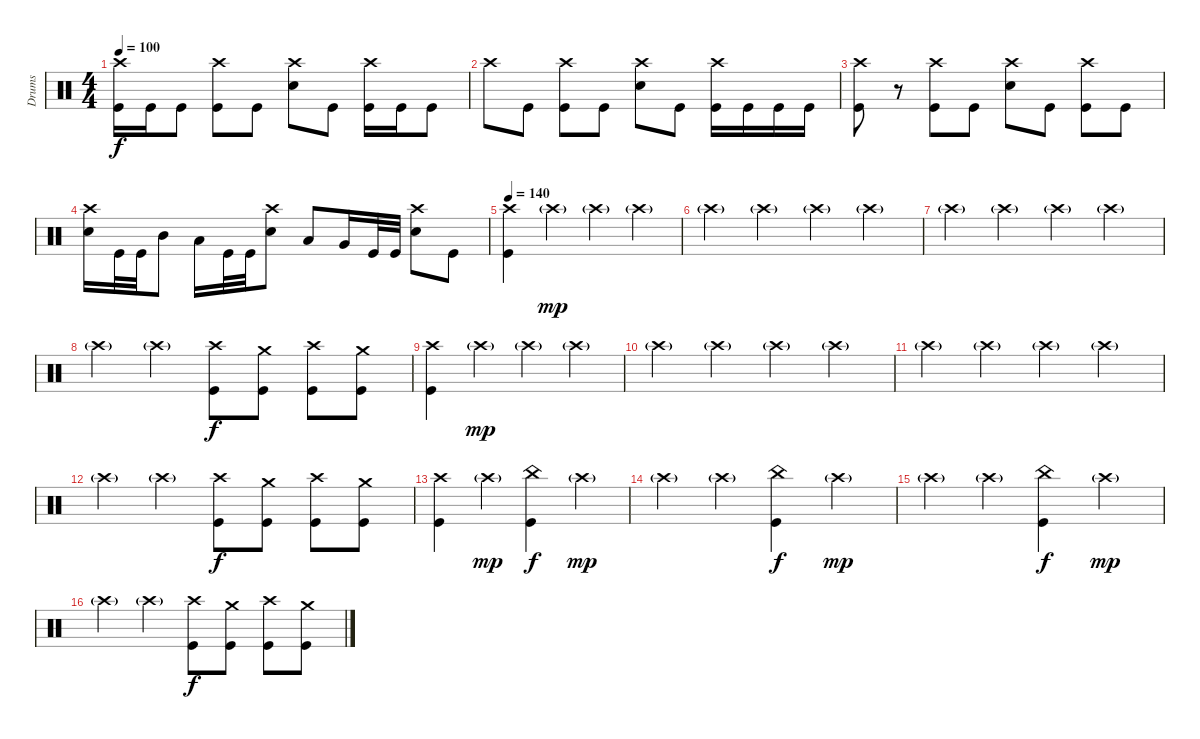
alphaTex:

\track ("Drums" "Drums") {instrument percussion}
\staff {score}
\articulation defaults
\ts (4 4)
\tempo 100
\clef neutral
\ks c
("Crash high (hit)" "Kick (hit)").16{dy f} "Kick (hit)".16 "Kick (hit)".8 ("Crash high (hit)" "Kick (hit)").8 "Kick (hit)".8 ("Crash high (hit)" "Electric Snare (hit)").8 "Kick (hit)".8 ("Crash high (hit)" "Kick (hit)").16 "Kick (hit)".16 "Kick (hit)".8 |
"Crash high (hit)".8 "Kick (hit)".8 ("Crash high (hit)" "Kick (hit)").8 "Kick (hit)".8 ("Crash high (hit)" "Electric Snare (hit)").8 "Kick (hit)".8 ("Crash high (hit)" "Kick (hit)").16 "Kick (hit)".16 "Kick (hit)".16 "Kick (hit)".16 |
("Crash high (hit)" "Kick (hit)").8 r.8 ("Crash high (hit)" "Kick (hit)").8 "Kick (hit)".8 ("Crash high (hit)" "Electric Snare (hit)").8 "Kick (hit)".8 ("Crash high (hit)" "Kick (hit)").8 "Kick (hit)".8 |
("Crash high (hit)" "Electric Snare (hit)").16 "Kick (hit)".32 "Kick (hit)".32 "Mid Tom (hit)".8 "Low Tom (hit)".16 "Kick (hit)".32 "Kick (hit)".32 ("Crash high (hit)" "Electric Snare (hit)").8 "Low Tom (hit)".8 "Very Low Tom (hit)".16 "Kick (hit)".32 "Kick (hit)".32 ("Crash high (hit)" "Electric Snare (hit)").8 "Kick (hit)".8 |
\tempo 140
("Crash high (hit)" "Kick (hit)").4 "Crash high (hit)"{g}.4{dy mp} "Crash high (hit)"{g}.4 "Crash high (hit)"{g}.4 |
"Crash high (hit)"{g}.4 "Crash high (hit)"{g}.4 "Crash high (hit)"{g}.4 "Crash high (hit)"{g}.4 |
"Crash high (hit)"{g}.4 "Crash high (hit)"{g}.4 "Crash high (hit)"{g}.4 "Crash high (hit)"{g}.4 |
"Crash high (hit)"{g}.4 "Crash high (hit)"{g}.4 ("Crash high (hit)" "Kick (hit)").8{dy f} ("Crash medium (hit)" "Kick (hit)").8 ("Crash high (hit)" "Kick (hit)").8 ("Crash medium (hit)" "Kick (hit)").8 |
("Crash high (hit)" "Kick (hit)").4 "Crash high (hit)"{g}.4{dy mp} "Crash high (hit)"{g}.4 "Crash high (hit)"{g}.4 |
"Crash high (hit)"{g}.4 "Crash high (hit)"{g}.4 "Crash high (hit)"{g}.4 "Crash high (hit)"{g}.4 |
"Crash high (hit)"{g}.4 "Crash high (hit)"{g}.4 "Crash high (hit)"{g}.4 "Crash high (hit)"{g}.4 |
"Crash high (hit)"{g}.4 "Crash high (hit)"{g}.4 ("Crash high (hit)" "Kick (hit)").8{dy f} ("Crash medium (hit)" "Kick (hit)").8 ("Crash high (hit)" "Kick (hit)").8 ("Crash medium (hit)" "Kick (hit)").8 |
("Crash high (hit)" "Kick (hit)").4 "Crash high (hit)"{g}.4{dy mp} ("China (hit)" "Kick (hit)").4{dy f} "Crash high (hit)"{g}.4{dy mp} |
"Crash high (hit)"{g}.4 "Crash high (hit)"{g}.4 ("China (hit)" "Kick (hit)").4{dy f} "Crash high (hit)"{g}.4{dy mp} |
"Crash high (hit)"{g}.4 "Crash high (hit)"{g}.4 ("China (hit)" "Kick (hit)").4{dy f} "Crash high (hit)"{g}.4{dy mp} |
"Crash high (hit)"{g}.4 "Crash high (hit)"{g}.4 ("Crash high (hit)" "Kick (hit)").8{dy f} ("Crash medium (hit)" "Kick (hit)").8 ("Crash high (hit)" "Kick (hit)").8 ("Crash medium (hit)" "Kick (hit)").8
